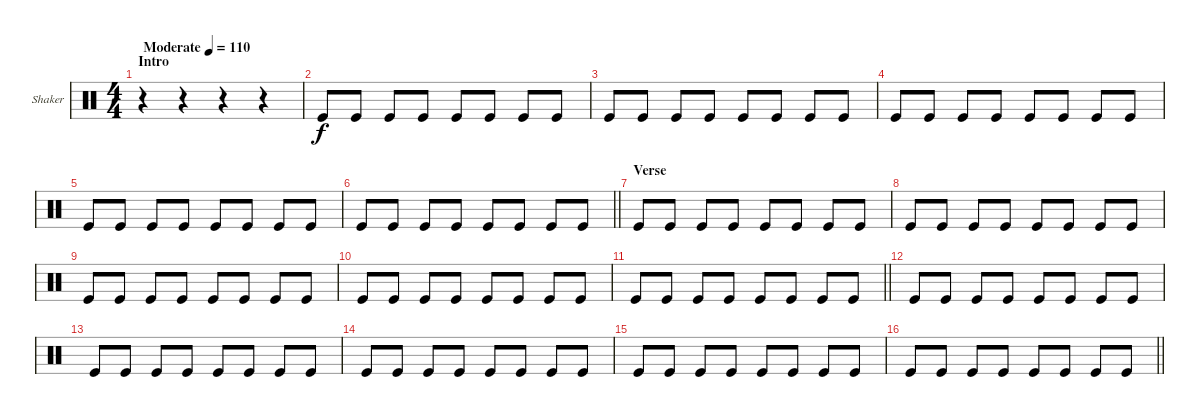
\bracketExtendMode groupsimilarinstruments
\firstSystemTrackNameOrientation horizontal
\otherSystemsTrackNameOrientation horizontal
\track ("Shaker" "Shaker") {instrument percussion}
\staff {score}
\articulation defaults
\ts (4 4)
\beaming (8 2 2 2 2)
\section ("" "Intro")
\tempo (110 "Moderate")
\clef neutral
\ks c
r.4{dy f} r.4 r.4 r.4 |
"Kick (hit)".8 "Kick (hit)".8 "Kick (hit)".8 "Kick (hit)".8 "Kick (hit)".8 "Kick (hit)".8 "Kick (hit)".8 "Kick (hit)".8 |
"Kick (hit)".8 "Kick (hit)".8 "Kick (hit)".8 "Kick (hit)".8 "Kick (hit)".8 "Kick (hit)".8 "Kick (hit)".8 "Kick (hit)".8 |
"Kick (hit)".8 "Kick (hit)".8 "Kick (hit)".8 "Kick (hit)".8 "Kick (hit)".8 "Kick (hit)".8 "Kick (hit)".8 "Kick (hit)".8 |
"Kick (hit)".8 "Kick (hit)".8 "Kick (hit)".8 "Kick (hit)".8 "Kick (hit)".8 "Kick (hit)".8 "Kick (hit)".8 "Kick (hit)".8 |
\barLineRight lightlight "Kick (hit)".8 "Kick (hit)".8 "Kick (hit)".8 "Kick (hit)".8 "Kick (hit)".8 "Kick (hit)".8 "Kick (hit)".8 "Kick (hit)".8
|
\section ("" "Verse")
"Kick (hit)".8 "Kick (hit)".8 "Kick (hit)".8 "Kick (hit)".8 "Kick (hit)".8 "Kick (hit)".8 "Kick (hit)".8 "Kick (hit)".8 |
"Kick (hit)".8 "Kick (hit)".8 "Kick (hit)".8 "Kick (hit)".8 "Kick (hit)".8 "Kick (hit)".8 "Kick (hit)".8 "Kick (hit)".8 |
"Kick (hit)".8 "Kick (hit)".8 "Kick (hit)".8 "Kick (hit)".8 "Kick (hit)".8 "Kick (hit)".8 "Kick (hit)".8 "Kick (hit)".8 |
"Kick (hit)".8 "Kick (hit)".8 "Kick (hit)".8 "Kick (hit)".8 "Kick (hit)".8 "Kick (hit)".8 "Kick (hit)".8 "Kick (hit)".8 |
\barLineRight lightlight "Kick (hit)".8 "Kick (hit)".8 "Kick (hit)".8 "Kick (hit)".8 "Kick (hit)".8 "Kick (hit)".8 "Kick (hit)".8 "Kick (hit)".8
|
"Kick (hit)".8 "Kick (hit)".8 "Kick (hit)".8 "Kick (hit)".8 "Kick (hit)".8 "Kick (hit)".8 "Kick (hit)".8 "Kick (hit)".8 |
"Kick (hit)".8 "Kick (hit)".8 "Kick (hit)".8 "Kick (hit)".8 "Kick (hit)".8 "Kick (hit)".8 "Kick (hit)".8 "Kick (hit)".8 |
"Kick (hit)".8 "Kick (hit)".8 "Kick (hit)".8 "Kick (hit)".8 "Kick (hit)".8 "Kick (hit)".8 "Kick (hit)".8 "Kick (hit)".8 |
"Kick (hit)".8 "Kick (hit)".8 "Kick (hit)".8 "Kick (hit)".8 "Kick (hit)".8 "Kick (hit)".8 "Kick (hit)".8 "Kick (hit)".8 |
\barLineRight lightlight "Kick (hit)".8 "Kick (hit)".8 "Kick (hit)".8 "Kick (hit)".8 "Kick (hit)".8 "Kick (hit)".8 "Kick (hit)".8 "Kick (hit)".8
